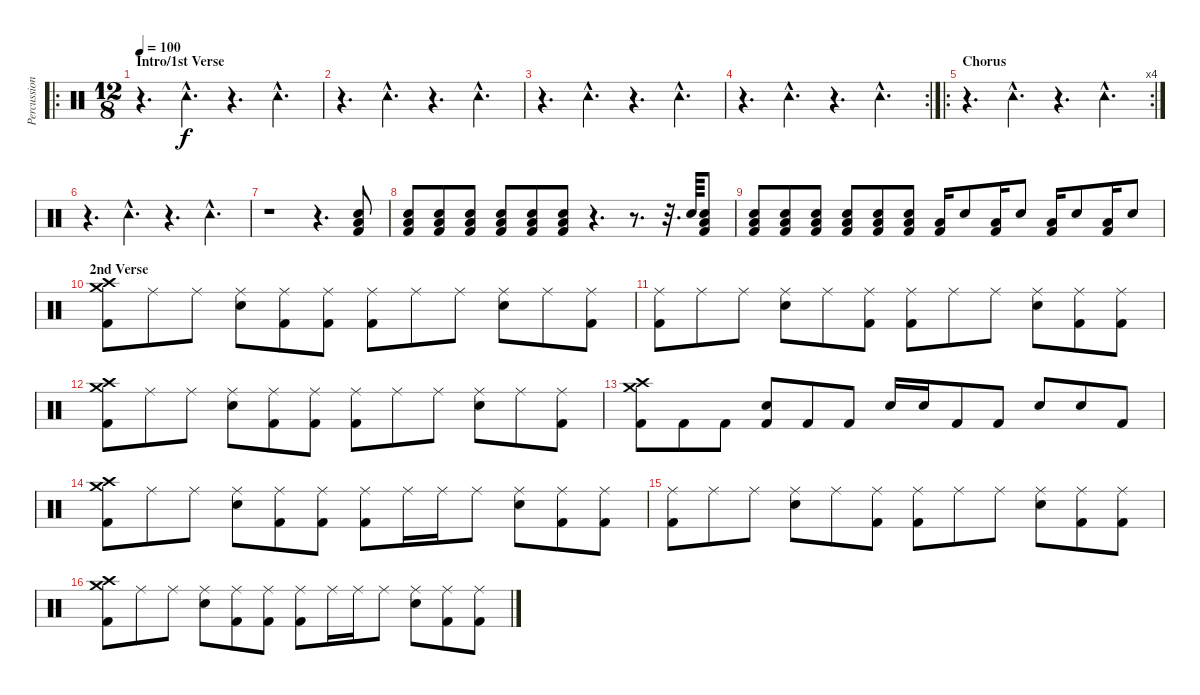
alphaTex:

\track ("Percussion" "Percussion") {instrument percussion}
\staff {score}
\articulation defaults
\ro
\ts (12 8)
\section ("" "Intro/1st Verse")
\tempo 100
\clef neutral
\ks c
r.4{d dy f} "Tambourine (hit)"{hac}.4{d} r.4{d} "Tambourine (hit)"{hac}.4{d} |
r.4{d} "Tambourine (hit)"{hac}.4{d} r.4{d} "Tambourine (hit)"{hac}.4{d} |
r.4{d} "Tambourine (hit)"{hac}.4{d} r.4{d} "Tambourine (hit)"{hac}.4{d} |
\rc 2
r.4{d} "Tambourine (hit)"{hac}.4{d} r.4{d} "Tambourine (hit)"{hac}.4{d} |
\ro
\rc 4
\section ("" "Chorus")
r.4{d} "Tambourine (hit)"{hac}.4{d} r.4{d} "Tambourine (hit)"{hac}.4{d} |
r.4{d} "Tambourine (hit)"{hac}.4{d} r.4{d} "Tambourine (hit)"{hac}.4{d} |
r.1 r.4{d} ("Kick (hit) 2" "Low Floor Tom (hit)" "Snare (hit) 2").8 |
("Kick (hit) 2" "Low Floor Tom (hit)" "Snare (hit) 2").8 ("Kick (hit) 2" "Low Floor Tom (hit)" "Snare (hit) 2").8 ("Kick (hit) 2" "Low Floor Tom (hit)" "Snare (hit) 2").8 ("Kick (hit) 2" "Low Floor Tom (hit)" "Snare (hit) 2").8 ("Kick (hit) 2" "Low Floor Tom (hit)" "Snare (hit) 2").8 ("Kick (hit) 2" "Low Floor Tom (hit)" "Snare (hit) 2").8 r.4{d} r.8{d} r.32{d} "Snare (hit) 2".64 ("Kick (hit) 2" "Low Floor Tom (hit)" "Snare (hit) 2").8 |
("Kick (hit) 2" "Low Floor Tom (hit)" "Snare (hit) 2").8 ("Kick (hit) 2" "Low Floor Tom (hit)" "Snare (hit) 2").8 ("Kick (hit) 2" "Low Floor Tom (hit)" "Snare (hit) 2").8 ("Kick (hit) 2" "Low Floor Tom (hit)" "Snare (hit) 2").8 ("Kick (hit) 2" "Low Floor Tom (hit)" "Snare (hit) 2").8 ("Kick (hit) 2" "Low Floor Tom (hit)" "Snare (hit) 2").8 ("Low Floor Tom (hit)" "Kick (hit) 2").16 "Snare (hit) 2".8 ("Low Floor Tom (hit)" "Kick (hit) 2").16 "Snare (hit) 2".8 ("Low Floor Tom (hit)" "Kick (hit) 2").16 "Snare (hit) 2".8 ("Low Floor Tom (hit)" "Kick (hit) 2").16 "Snare (hit) 2".8 |
\section ("" "2nd Verse")
("Crash medium (hit)" "Kick (hit) 2" "Crash high (hit)").8 "Ride (middle)".8 "Ride (middle)".8 ("Snare (hit) 2" "Ride (middle)").8 ("Kick (hit) 2" "Ride (middle)").8 ("Kick (hit) 2" "Ride (middle)").8 ("Kick (hit) 2" "Ride (middle)").8 "Ride (middle)".8 "Ride (middle)".8 ("Snare (hit) 2" "Ride (middle)").8 "Ride (middle)".8 ("Kick (hit) 2" "Ride (middle)").8 |
("Kick (hit) 2" "Ride (middle)").8 "Ride (middle)".8 "Ride (middle)".8 ("Snare (hit) 2" "Ride (middle)").8 "Ride (middle)".8 ("Kick (hit) 2" "Ride (middle)").8 ("Kick (hit) 2" "Ride (middle)").8 "Ride (middle)".8 "Ride (middle)".8 ("Snare (hit) 2" "Ride (middle)").8 ("Kick (hit) 2" "Ride (middle)").8 ("Kick (hit) 2" "Ride (middle)").8 |
("Crash medium (hit)" "Kick (hit) 2" "Crash high (hit)").8 "Ride (middle)".8 "Ride (middle)".8 ("Snare (hit) 2" "Ride (middle)").8 ("Kick (hit) 2" "Ride (middle)").8 ("Kick (hit) 2" "Ride (middle)").8 ("Kick (hit) 2" "Ride (middle)").8 "Ride (middle)".8 "Ride (middle)".8 ("Snare (hit) 2" "Ride (middle)").8 "Ride (middle)".8 ("Kick (hit) 2" "Ride (middle)").8 |
("Crash medium (hit)" "Kick (hit) 2" "Crash high (hit)").8 "Kick (hit) 2".8 "Kick (hit) 2".8 ("Snare (hit) 2" "Kick (hit) 2").8 "Kick (hit) 2".8 "Kick (hit) 2".8 "Snare (hit) 2".16 "Snare (hit) 2".16 "Kick (hit) 2".8 "Kick (hit) 2".8 "Snare (hit) 2".8 "Snare (hit) 2".8 "Kick (hit) 2".8 |
("Crash medium (hit)" "Kick (hit) 2" "Crash high (hit)").8 "Ride (middle)".8 "Ride (middle)".8 ("Snare (hit) 2" "Ride (middle)").8 ("Kick (hit) 2" "Ride (middle)").8 ("Kick (hit) 2" "Ride (middle)").8 ("Kick (hit) 2" "Ride (middle)").8 "Ride (middle)".16 "Ride (middle)".16 "Ride (middle)".8 ("Snare (hit) 2" "Ride (middle)").8 ("Kick (hit) 2" "Ride (middle)").8 ("Kick (hit) 2" "Ride (middle)").8 |
("Kick (hit) 2" "Ride (middle)").8 "Ride (middle)".8 "Ride (middle)".8 ("Snare (hit) 2" "Ride (middle)").8 "Ride (middle)".8 ("Kick (hit) 2" "Ride (middle)").8 ("Kick (hit) 2" "Ride (middle)").8 "Ride (middle)".8 "Ride (middle)".8 ("Snare (hit) 2" "Ride (middle)").8 ("Kick (hit) 2" "Ride (middle)").8 ("Kick (hit) 2" "Ride (middle)").8 |
("Crash medium (hit)" "Kick (hit) 2" "Crash high (hit)").8 "Ride (middle)".8 "Ride (middle)".8 ("Snare (hit) 2" "Ride (middle)").8 ("Kick (hit) 2" "Ride (middle)").8 ("Kick (hit) 2" "Ride (middle)").8 ("Kick (hit) 2" "Ride (middle)").8 "Ride (middle)".16 "Ride (middle)".16 "Ride (middle)".8 ("Snare (hit) 2" "Ride (middle)").8 ("Kick (hit) 2" "Ride (middle)").8 ("Kick (hit) 2" "Ride (middle)").8
